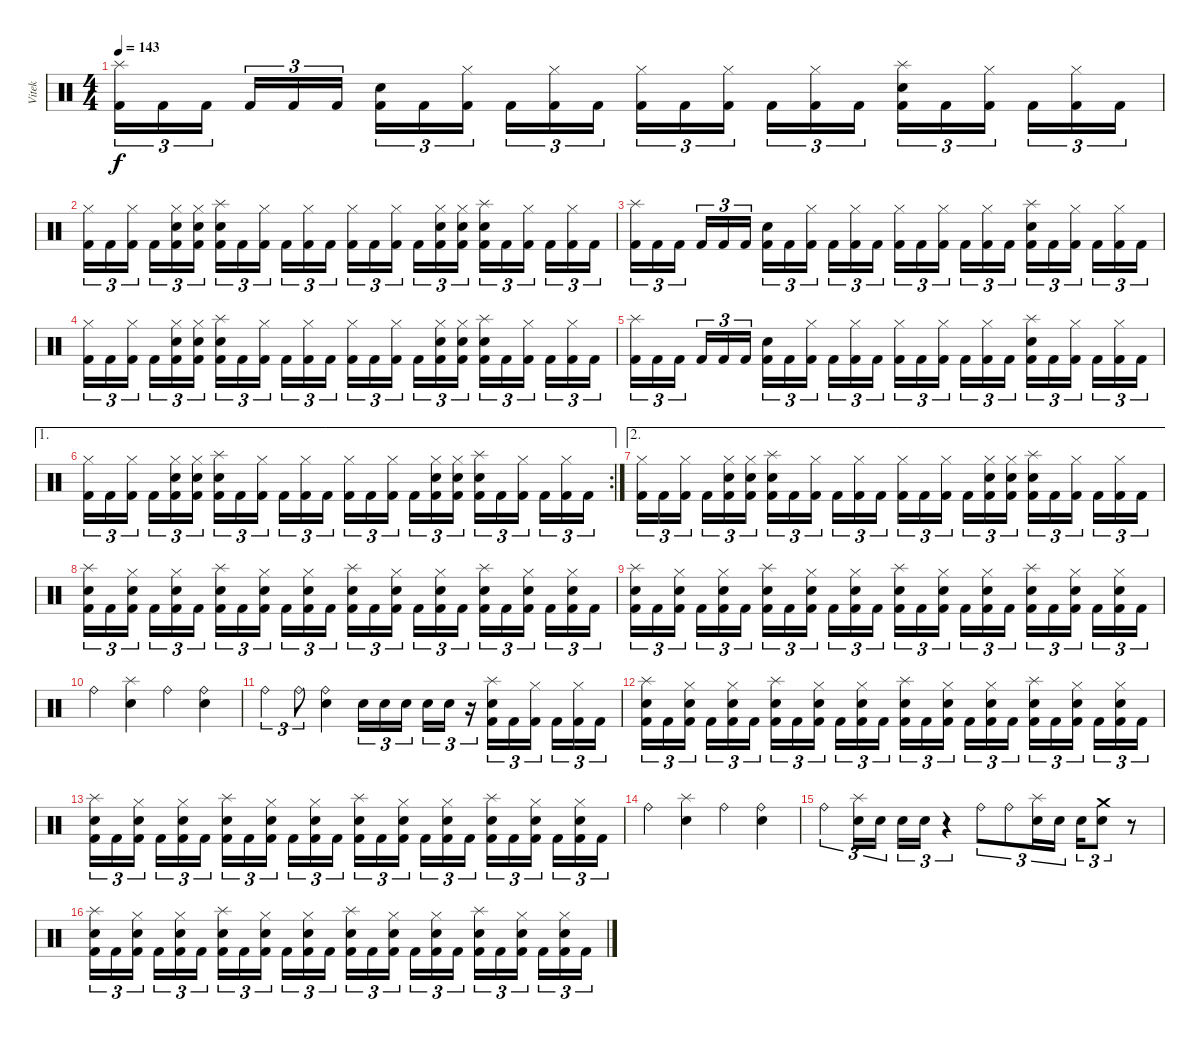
\track ("Vitek" "Vitek") {instrument percussion}
\staff {score}
\articulation defaults
\ts (4 4)
\tempo 143
\clef neutral
\ks c
("Splash (hit)" "Kick (hit) 2").16{tu (3 2) dy f} "Kick (hit) 2".16{tu (3 2)} "Kick (hit) 2".16{tu (3 2) beam splitsecondary} "Kick (hit) 2".16{tu (3 2)} "Kick (hit) 2".16{tu (3 2)} "Kick (hit) 2".16{tu (3 2)} ("Electric Snare (hit)" "Kick (hit) 2").16{tu (3 2)} "Kick (hit) 2".16{tu (3 2)} ("Hi-Hat (closed)" "Kick (hit) 2").16{tu (3 2) beam splitsecondary} "Kick (hit) 2".16{tu (3 2)} ("Hi-Hat (closed)" "Kick (hit) 2").16{tu (3 2)} "Kick (hit) 2".16{tu (3 2)} ("Hi-Hat (closed)" "Kick (hit) 2").16{tu (3 2)} "Kick (hit) 2".16{tu (3 2)} ("Hi-Hat (closed)" "Kick (hit) 2").16{tu (3 2) beam splitsecondary} "Kick (hit) 2".16{tu (3 2)} ("Hi-Hat (closed)" "Kick (hit) 2").16{tu (3 2)} "Kick (hit) 2".16{tu (3 2)} ("Splash (hit)" "Electric Snare (hit)" "Kick (hit) 2").16{tu (3 2)} "Kick (hit) 2".16{tu (3 2)} ("Hi-Hat (closed)" "Kick (hit) 2").16{tu (3 2) beam splitsecondary} "Kick (hit) 2".16{tu (3 2)} ("Hi-Hat (closed)" "Kick (hit) 2").16{tu (3 2)} "Kick (hit) 2".16{tu (3 2)} |
("Hi-Hat (closed)" "Kick (hit) 2").16{tu (3 2)} "Kick (hit) 2".16{tu (3 2)} ("Hi-Hat (closed)" "Kick (hit) 2").16{tu (3 2) beam splitsecondary} "Kick (hit) 2".16{tu (3 2)} ("Hi-Hat (closed)" "Electric Snare (hit)" "Kick (hit) 2").16{tu (3 2)} ("Hi-Hat (closed)" "Electric Snare (hit)" "Kick (hit) 2").16{tu (3 2)} ("Splash (hit)" "Electric Snare (hit)" "Kick (hit) 2").16{tu (3 2)} "Kick (hit) 2".16{tu (3 2)} ("Hi-Hat (closed)" "Kick (hit) 2").16{tu (3 2) beam splitsecondary} "Kick (hit) 2".16{tu (3 2)} ("Hi-Hat (closed)" "Kick (hit) 2").16{tu (3 2)} "Kick (hit) 2".16{tu (3 2)} ("Hi-Hat (closed)" "Kick (hit) 2").16{tu (3 2)} "Kick (hit) 2".16{tu (3 2)} ("Hi-Hat (closed)" "Kick (hit) 2").16{tu (3 2) beam splitsecondary} "Kick (hit) 2".16{tu (3 2)} ("Hi-Hat (closed)" "Electric Snare (hit)" "Kick (hit) 2").16{tu (3 2)} ("Hi-Hat (closed)" "Electric Snare (hit)" "Kick (hit) 2").16{tu (3 2)} ("Splash (hit)" "Electric Snare (hit)" "Kick (hit) 2").16{tu (3 2)} "Kick (hit) 2".16{tu (3 2)} ("Hi-Hat (closed)" "Kick (hit) 2").16{tu (3 2) beam splitsecondary} "Kick (hit) 2".16{tu (3 2)} ("Hi-Hat (closed)" "Kick (hit) 2").16{tu (3 2)} "Kick (hit) 2".16{tu (3 2)} |
("Splash (hit)" "Kick (hit) 2").16{tu (3 2)} "Kick (hit) 2".16{tu (3 2)} "Kick (hit) 2".16{tu (3 2) beam splitsecondary} "Kick (hit) 2".16{tu (3 2)} "Kick (hit) 2".16{tu (3 2)} "Kick (hit) 2".16{tu (3 2)} ("Electric Snare (hit)" "Kick (hit) 2").16{tu (3 2)} "Kick (hit) 2".16{tu (3 2)} ("Hi-Hat (closed)" "Kick (hit) 2").16{tu (3 2) beam splitsecondary} "Kick (hit) 2".16{tu (3 2)} ("Hi-Hat (closed)" "Kick (hit) 2").16{tu (3 2)} "Kick (hit) 2".16{tu (3 2)} ("Hi-Hat (closed)" "Kick (hit) 2").16{tu (3 2)} "Kick (hit) 2".16{tu (3 2)} ("Hi-Hat (closed)" "Kick (hit) 2").16{tu (3 2) beam splitsecondary} "Kick (hit) 2".16{tu (3 2)} ("Hi-Hat (closed)" "Kick (hit) 2").16{tu (3 2)} "Kick (hit) 2".16{tu (3 2)} ("Splash (hit)" "Electric Snare (hit)" "Kick (hit) 2").16{tu (3 2)} "Kick (hit) 2".16{tu (3 2)} ("Hi-Hat (closed)" "Kick (hit) 2").16{tu (3 2) beam splitsecondary} "Kick (hit) 2".16{tu (3 2)} ("Hi-Hat (closed)" "Kick (hit) 2").16{tu (3 2)} "Kick (hit) 2".16{tu (3 2)} |
("Hi-Hat (closed)" "Kick (hit) 2").16{tu (3 2)} "Kick (hit) 2".16{tu (3 2)} ("Hi-Hat (closed)" "Kick (hit) 2").16{tu (3 2) beam splitsecondary} "Kick (hit) 2".16{tu (3 2)} ("Hi-Hat (closed)" "Electric Snare (hit)" "Kick (hit) 2").16{tu (3 2)} ("Hi-Hat (closed)" "Electric Snare (hit)" "Kick (hit) 2").16{tu (3 2)} ("Splash (hit)" "Electric Snare (hit)" "Kick (hit) 2").16{tu (3 2)} "Kick (hit) 2".16{tu (3 2)} ("Hi-Hat (closed)" "Kick (hit) 2").16{tu (3 2) beam splitsecondary} "Kick (hit) 2".16{tu (3 2)} ("Hi-Hat (closed)" "Kick (hit) 2").16{tu (3 2)} "Kick (hit) 2".16{tu (3 2)} ("Hi-Hat (closed)" "Kick (hit) 2").16{tu (3 2)} "Kick (hit) 2".16{tu (3 2)} ("Hi-Hat (closed)" "Kick (hit) 2").16{tu (3 2) beam splitsecondary} "Kick (hit) 2".16{tu (3 2)} ("Hi-Hat (closed)" "Electric Snare (hit)" "Kick (hit) 2").16{tu (3 2)} ("Hi-Hat (closed)" "Electric Snare (hit)" "Kick (hit) 2").16{tu (3 2)} ("Splash (hit)" "Electric Snare (hit)" "Kick (hit) 2").16{tu (3 2)} "Kick (hit) 2".16{tu (3 2)} ("Hi-Hat (closed)" "Kick (hit) 2").16{tu (3 2) beam splitsecondary} "Kick (hit) 2".16{tu (3 2)} ("Hi-Hat (closed)" "Kick (hit) 2").16{tu (3 2)} "Kick (hit) 2".16{tu (3 2)} |
("Splash (hit)" "Kick (hit) 2").16{tu (3 2)} "Kick (hit) 2".16{tu (3 2)} "Kick (hit) 2".16{tu (3 2) beam splitsecondary} "Kick (hit) 2".16{tu (3 2)} "Kick (hit) 2".16{tu (3 2)} "Kick (hit) 2".16{tu (3 2)} ("Electric Snare (hit)" "Kick (hit) 2").16{tu (3 2)} "Kick (hit) 2".16{tu (3 2)} ("Hi-Hat (closed)" "Kick (hit) 2").16{tu (3 2) beam splitsecondary} "Kick (hit) 2".16{tu (3 2)} ("Hi-Hat (closed)" "Kick (hit) 2").16{tu (3 2)} "Kick (hit) 2".16{tu (3 2)} ("Hi-Hat (closed)" "Kick (hit) 2").16{tu (3 2)} "Kick (hit) 2".16{tu (3 2)} ("Hi-Hat (closed)" "Kick (hit) 2").16{tu (3 2) beam splitsecondary} "Kick (hit) 2".16{tu (3 2)} ("Hi-Hat (closed)" "Kick (hit) 2").16{tu (3 2)} "Kick (hit) 2".16{tu (3 2)} ("Splash (hit)" "Electric Snare (hit)" "Kick (hit) 2").16{tu (3 2)} "Kick (hit) 2".16{tu (3 2)} ("Hi-Hat (closed)" "Kick (hit) 2").16{tu (3 2) beam splitsecondary} "Kick (hit) 2".16{tu (3 2)} ("Hi-Hat (closed)" "Kick (hit) 2").16{tu (3 2)} "Kick (hit) 2".16{tu (3 2)} |
\ae 1
\rc 2
("Hi-Hat (closed)" "Kick (hit) 2").16{tu (3 2)} "Kick (hit) 2".16{tu (3 2)} ("Hi-Hat (closed)" "Kick (hit) 2").16{tu (3 2) beam splitsecondary} "Kick (hit) 2".16{tu (3 2)} ("Hi-Hat (closed)" "Electric Snare (hit)" "Kick (hit) 2").16{tu (3 2)} ("Hi-Hat (closed)" "Electric Snare (hit)" "Kick (hit) 2").16{tu (3 2)} ("Splash (hit)" "Electric Snare (hit)" "Kick (hit) 2").16{tu (3 2)} "Kick (hit) 2".16{tu (3 2)} ("Hi-Hat (closed)" "Kick (hit) 2").16{tu (3 2) beam splitsecondary} "Kick (hit) 2".16{tu (3 2)} ("Hi-Hat (closed)" "Kick (hit) 2").16{tu (3 2)} "Kick (hit) 2".16{tu (3 2)} ("Hi-Hat (closed)" "Kick (hit) 2").16{tu (3 2)} "Kick (hit) 2".16{tu (3 2)} ("Hi-Hat (closed)" "Kick (hit) 2").16{tu (3 2) beam splitsecondary} "Kick (hit) 2".16{tu (3 2)} ("Hi-Hat (closed)" "Electric Snare (hit)" "Kick (hit) 2").16{tu (3 2)} ("Hi-Hat (closed)" "Electric Snare (hit)" "Kick (hit) 2").16{tu (3 2)} ("Splash (hit)" "Electric Snare (hit)" "Kick (hit) 2").16{tu (3 2)} "Kick (hit) 2".16{tu (3 2)} ("Hi-Hat (closed)" "Kick (hit) 2").16{tu (3 2) beam splitsecondary} "Kick (hit) 2".16{tu (3 2)} ("Hi-Hat (closed)" "Kick (hit) 2").16{tu (3 2)} "Kick (hit) 2".16{tu (3 2)} |
\ae 2
("Hi-Hat (closed)" "Kick (hit) 2").16{tu (3 2)} "Kick (hit) 2".16{tu (3 2)} ("Hi-Hat (closed)" "Kick (hit) 2").16{tu (3 2) beam splitsecondary} "Kick (hit) 2".16{tu (3 2)} ("Hi-Hat (closed)" "Electric Snare (hit)" "Kick (hit) 2").16{tu (3 2)} ("Hi-Hat (closed)" "Electric Snare (hit)" "Kick (hit) 2").16{tu (3 2)} ("Splash (hit)" "Electric Snare (hit)" "Kick (hit) 2").16{tu (3 2)} "Kick (hit) 2".16{tu (3 2)} ("Hi-Hat (closed)" "Kick (hit) 2").16{tu (3 2) beam splitsecondary} "Kick (hit) 2".16{tu (3 2)} ("Hi-Hat (closed)" "Kick (hit) 2").16{tu (3 2)} "Kick (hit) 2".16{tu (3 2)} ("Hi-Hat (closed)" "Kick (hit) 2").16{tu (3 2)} "Kick (hit) 2".16{tu (3 2)} ("Hi-Hat (closed)" "Kick (hit) 2").16{tu (3 2) beam splitsecondary} "Kick (hit) 2".16{tu (3 2)} ("Hi-Hat (closed)" "Electric Snare (hit)" "Kick (hit) 2").16{tu (3 2)} ("Hi-Hat (closed)" "Electric Snare (hit)" "Kick (hit) 2").16{tu (3 2)} ("Splash (hit)" "Electric Snare (hit)" "Kick (hit) 2").16{tu (3 2)} "Kick (hit) 2".16{tu (3 2)} ("Hi-Hat (closed)" "Kick (hit) 2").16{tu (3 2) beam splitsecondary} "Kick (hit) 2".16{tu (3 2)} ("Hi-Hat (closed)" "Kick (hit) 2").16{tu (3 2)} "Kick (hit) 2".16{tu (3 2)} |
("Splash (hit)" "Electric Snare (hit)" "Kick (hit) 2").16{tu (3 2)} "Kick (hit) 2".16{tu (3 2)} ("Hi-Hat (closed)" "Electric Snare (hit)" "Kick (hit) 2").16{tu (3 2) beam splitsecondary} "Kick (hit) 2".16{tu (3 2)} ("Hi-Hat (closed)" "Electric Snare (hit)" "Kick (hit) 2").16{tu (3 2)} "Kick (hit) 2".16{tu (3 2)} ("Splash (hit)" "Electric Snare (hit)" "Kick (hit) 2").16{tu (3 2)} "Kick (hit) 2".16{tu (3 2)} ("Hi-Hat (closed)" "Electric Snare (hit)" "Kick (hit) 2").16{tu (3 2) beam splitsecondary} "Kick (hit) 2".16{tu (3 2)} ("Hi-Hat (closed)" "Electric Snare (hit)" "Kick (hit) 2").16{tu (3 2)} "Kick (hit) 2".16{tu (3 2)} ("Splash (hit)" "Electric Snare (hit)" "Kick (hit) 2").16{tu (3 2)} "Kick (hit) 2".16{tu (3 2)} ("Hi-Hat (closed)" "Electric Snare (hit)" "Kick (hit) 2").16{tu (3 2) beam splitsecondary} "Kick (hit) 2".16{tu (3 2)} ("Hi-Hat (closed)" "Electric Snare (hit)" "Kick (hit) 2").16{tu (3 2)} "Kick (hit) 2".16{tu (3 2)} ("Splash (hit)" "Electric Snare (hit)" "Kick (hit) 2").16{tu (3 2)} "Kick (hit) 2".16{tu (3 2)} ("Hi-Hat (closed)" "Electric Snare (hit)" "Kick (hit) 2").16{tu (3 2) beam splitsecondary} "Kick (hit) 2".16{tu (3 2)} ("Hi-Hat (closed)" "Electric Snare (hit)" "Kick (hit) 2").16{tu (3 2)} "Kick (hit) 2".16{tu (3 2)} |
("Splash (hit)" "Electric Snare (hit)" "Kick (hit) 2").16{tu (3 2)} "Kick (hit) 2".16{tu (3 2)} ("Hi-Hat (closed)" "Electric Snare (hit)" "Kick (hit) 2").16{tu (3 2) beam splitsecondary} "Kick (hit) 2".16{tu (3 2)} ("Hi-Hat (closed)" "Electric Snare (hit)" "Kick (hit) 2").16{tu (3 2)} "Kick (hit) 2".16{tu (3 2)} ("Splash (hit)" "Electric Snare (hit)" "Kick (hit) 2").16{tu (3 2)} "Kick (hit) 2".16{tu (3 2)} ("Hi-Hat (closed)" "Electric Snare (hit)" "Kick (hit) 2").16{tu (3 2) beam splitsecondary} "Kick (hit) 2".16{tu (3 2)} ("Hi-Hat (closed)" "Electric Snare (hit)" "Kick (hit) 2").16{tu (3 2)} "Kick (hit) 2".16{tu (3 2)} ("Splash (hit)" "Electric Snare (hit)" "Kick (hit) 2").16{tu (3 2)} "Kick (hit) 2".16{tu (3 2)} ("Hi-Hat (closed)" "Electric Snare (hit)" "Kick (hit) 2").16{tu (3 2) beam splitsecondary} "Kick (hit) 2".16{tu (3 2)} ("Hi-Hat (closed)" "Electric Snare (hit)" "Kick (hit) 2").16{tu (3 2)} "Kick (hit) 2".16{tu (3 2)} ("Splash (hit)" "Electric Snare (hit)" "Kick (hit) 2").16{tu (3 2)} "Kick (hit) 2".16{tu (3 2)} ("Hi-Hat (closed)" "Electric Snare (hit)" "Kick (hit) 2").16{tu (3 2) beam splitsecondary} "Kick (hit) 2".16{tu (3 2)} ("Hi-Hat (closed)" "Electric Snare (hit)" "Kick (hit) 2").16{tu (3 2)} "Kick (hit) 2".16{tu (3 2)} |
"Ride (bell)".4 ("Splash (hit)" "Electric Snare (hit)").4 "Ride (bell)".4 ("Ride (bell)" "Electric Snare (hit)").4 |
"Ride (bell)".4{tu (3 2)} "Ride (bell)".8{tu (3 2)} ("Ride (bell)" "Electric Snare (hit)").4 "Electric Snare (hit)".16{tu (3 2)} "Electric Snare (hit)".16{tu (3 2)} "Electric Snare (hit)".16{tu (3 2) beam splitsecondary} "Electric Snare (hit)".16{tu (3 2)} "Electric Snare (hit)".16{tu (3 2)} r.16{tu (3 2)} ("Splash (hit)" "Electric Snare (hit)" "Kick (hit) 2").16{tu (3 2)} "Kick (hit) 2".16{tu (3 2)} ("Hi-Hat (closed)" "Kick (hit) 2").16{tu (3 2) beam splitsecondary} "Kick (hit) 2".16{tu (3 2)} ("Hi-Hat (closed)" "Kick (hit) 2").16{tu (3 2)} "Kick (hit) 2".16{tu (3 2)} |
("Splash (hit)" "Electric Snare (hit)" "Kick (hit) 2").16{tu (3 2)} "Kick (hit) 2".16{tu (3 2)} ("Hi-Hat (closed)" "Electric Snare (hit)" "Kick (hit) 2").16{tu (3 2) beam splitsecondary} "Kick (hit) 2".16{tu (3 2)} ("Hi-Hat (closed)" "Electric Snare (hit)" "Kick (hit) 2").16{tu (3 2)} "Kick (hit) 2".16{tu (3 2)} ("Splash (hit)" "Electric Snare (hit)" "Kick (hit) 2").16{tu (3 2)} "Kick (hit) 2".16{tu (3 2)} ("Hi-Hat (closed)" "Electric Snare (hit)" "Kick (hit) 2").16{tu (3 2) beam splitsecondary} "Kick (hit) 2".16{tu (3 2)} ("Hi-Hat (closed)" "Electric Snare (hit)" "Kick (hit) 2").16{tu (3 2)} "Kick (hit) 2".16{tu (3 2)} ("Splash (hit)" "Electric Snare (hit)" "Kick (hit) 2").16{tu (3 2)} "Kick (hit) 2".16{tu (3 2)} ("Hi-Hat (closed)" "Electric Snare (hit)" "Kick (hit) 2").16{tu (3 2) beam splitsecondary} "Kick (hit) 2".16{tu (3 2)} ("Hi-Hat (closed)" "Electric Snare (hit)" "Kick (hit) 2").16{tu (3 2)} "Kick (hit) 2".16{tu (3 2)} ("Splash (hit)" "Electric Snare (hit)" "Kick (hit) 2").16{tu (3 2)} "Kick (hit) 2".16{tu (3 2)} ("Hi-Hat (closed)" "Electric Snare (hit)" "Kick (hit) 2").16{tu (3 2) beam splitsecondary} "Kick (hit) 2".16{tu (3 2)} ("Hi-Hat (closed)" "Electric Snare (hit)" "Kick (hit) 2").16{tu (3 2)} "Kick (hit) 2".16{tu (3 2)} |
("Splash (hit)" "Electric Snare (hit)" "Kick (hit) 2").16{tu (3 2)} "Kick (hit) 2".16{tu (3 2)} ("Hi-Hat (closed)" "Electric Snare (hit)" "Kick (hit) 2").16{tu (3 2) beam splitsecondary} "Kick (hit) 2".16{tu (3 2)} ("Hi-Hat (closed)" "Electric Snare (hit)" "Kick (hit) 2").16{tu (3 2)} "Kick (hit) 2".16{tu (3 2)} ("Splash (hit)" "Electric Snare (hit)" "Kick (hit) 2").16{tu (3 2)} "Kick (hit) 2".16{tu (3 2)} ("Hi-Hat (closed)" "Electric Snare (hit)" "Kick (hit) 2").16{tu (3 2) beam splitsecondary} "Kick (hit) 2".16{tu (3 2)} ("Hi-Hat (closed)" "Electric Snare (hit)" "Kick (hit) 2").16{tu (3 2)} "Kick (hit) 2".16{tu (3 2)} ("Splash (hit)" "Electric Snare (hit)" "Kick (hit) 2").16{tu (3 2)} "Kick (hit) 2".16{tu (3 2)} ("Hi-Hat (closed)" "Electric Snare (hit)" "Kick (hit) 2").16{tu (3 2) beam splitsecondary} "Kick (hit) 2".16{tu (3 2)} ("Hi-Hat (closed)" "Electric Snare (hit)" "Kick (hit) 2").16{tu (3 2)} "Kick (hit) 2".16{tu (3 2)} ("Splash (hit)" "Electric Snare (hit)" "Kick (hit) 2").16{tu (3 2)} "Kick (hit) 2".16{tu (3 2)} ("Hi-Hat (closed)" "Electric Snare (hit)" "Kick (hit) 2").16{tu (3 2) beam splitsecondary} "Kick (hit) 2".16{tu (3 2)} ("Hi-Hat (closed)" "Electric Snare (hit)" "Kick (hit) 2").16{tu (3 2)} "Kick (hit) 2".16{tu (3 2)} |
"Ride (bell)".4 ("Splash (hit)" "Electric Snare (hit)").4 "Ride (bell)".4 ("Ride (bell)" "Electric Snare (hit)").4 |
"Ride (bell)".4{tu (3 2)} ("Splash (hit)" "Electric Snare (hit)").16{tu (3 2)} "Electric Snare (hit)".16{tu (3 2)} "Electric Snare (hit)".16{tu (3 2)} "Electric Snare (hit)".16{tu (3 2)} r.4{tu (3 2)} "Ride (bell)".8{tu (3 2)} "Ride (bell)".8{tu (3 2)} ("Splash (hit)" "Electric Snare (hit)").16{tu (3 2)} "Electric Snare (hit)".16{tu (3 2)} "Electric Snare (hit)".16{tu (3 2)} ("Crash medium (hit)" "Electric Snare (hit)").8{tu (3 2)} r.8 |
("Splash (hit)" "Electric Snare (hit)" "Kick (hit) 2").16{tu (3 2)} "Kick (hit) 2".16{tu (3 2)} ("Hi-Hat (closed)" "Electric Snare (hit)" "Kick (hit) 2").16{tu (3 2) beam splitsecondary} "Kick (hit) 2".16{tu (3 2)} ("Hi-Hat (closed)" "Electric Snare (hit)" "Kick (hit) 2").16{tu (3 2)} "Kick (hit) 2".16{tu (3 2)} ("Splash (hit)" "Electric Snare (hit)" "Kick (hit) 2").16{tu (3 2)} "Kick (hit) 2".16{tu (3 2)} ("Hi-Hat (closed)" "Electric Snare (hit)" "Kick (hit) 2").16{tu (3 2) beam splitsecondary} "Kick (hit) 2".16{tu (3 2)} ("Hi-Hat (closed)" "Electric Snare (hit)" "Kick (hit) 2").16{tu (3 2)} "Kick (hit) 2".16{tu (3 2)} ("Splash (hit)" "Electric Snare (hit)" "Kick (hit) 2").16{tu (3 2)} "Kick (hit) 2".16{tu (3 2)} ("Hi-Hat (closed)" "Electric Snare (hit)" "Kick (hit) 2").16{tu (3 2) beam splitsecondary} "Kick (hit) 2".16{tu (3 2)} ("Hi-Hat (closed)" "Electric Snare (hit)" "Kick (hit) 2").16{tu (3 2)} "Kick (hit) 2".16{tu (3 2)} ("Splash (hit)" "Electric Snare (hit)" "Kick (hit) 2").16{tu (3 2)} "Kick (hit) 2".16{tu (3 2)} ("Hi-Hat (closed)" "Electric Snare (hit)" "Kick (hit) 2").16{tu (3 2) beam splitsecondary} "Kick (hit) 2".16{tu (3 2)} ("Hi-Hat (closed)" "Electric Snare (hit)" "Kick (hit) 2").16{tu (3 2)} "Kick (hit) 2".16{tu (3 2)}
